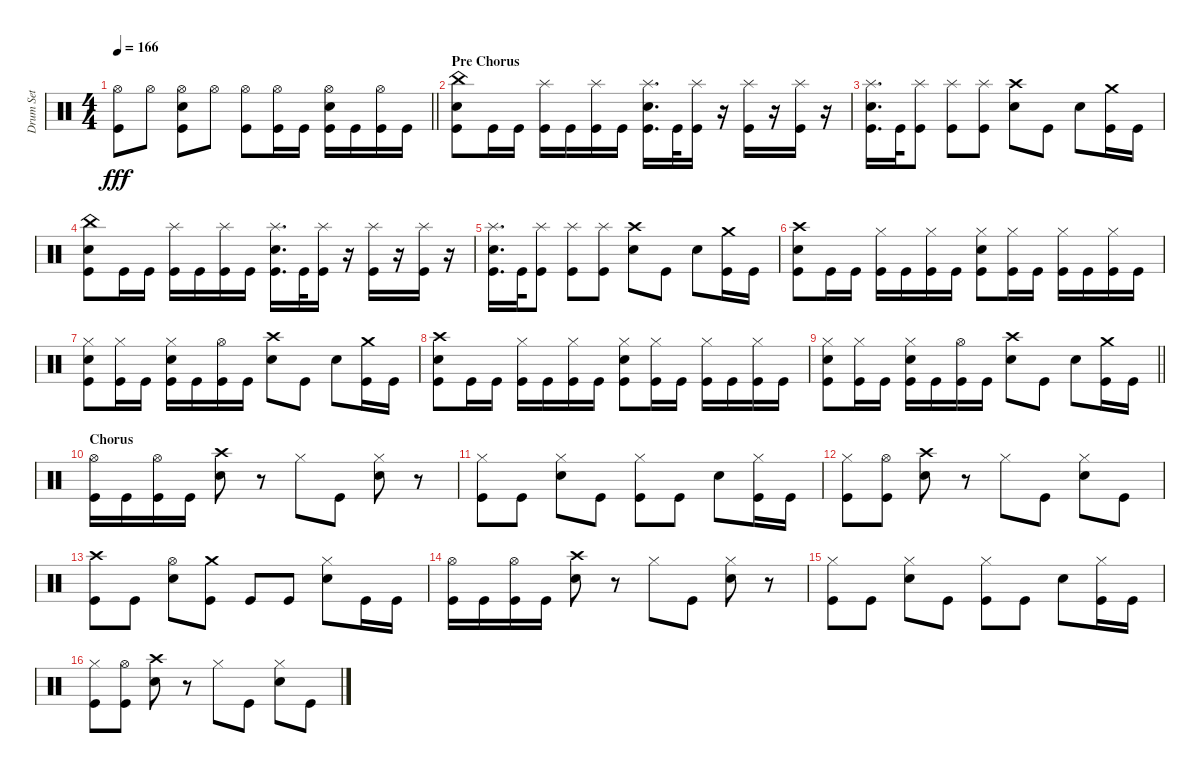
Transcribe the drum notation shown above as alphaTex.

\track ("Drum Set" "Drum Set") {instrument percussion}
\staff {score}
\articulation defaults
\ts (4 4)
\tempo 166
\clef neutral
\barLineRight lightlight
\ks c
("Kick (hit)" "Hi-Hat (open)").8{dy fff} "Hi-Hat (open)".8 ("Electric Snare (hit)" "Kick (hit)" "Hi-Hat (open)").8 "Hi-Hat (open)".8 ("Kick (hit)" "Hi-Hat (open)").8 ("Kick (hit)" "Hi-Hat (open)").16 "Kick (hit)".16 ("Electric Snare (hit)" "Kick (hit)" "Hi-Hat (open)").16 "Kick (hit)".16 ("Kick (hit)" "Hi-Hat (open)").16 "Kick (hit)".16 |
\section ("" "Pre Chorus")
("Electric Snare (hit)" "Kick (hit)" "China (hit)").8 "Kick (hit)".16 "Kick (hit)".16 ("Kick (hit)" "Splash (hit)").16 "Kick (hit)".16 ("Kick (hit)" "Splash (hit)").16 "Kick (hit)".16 ("Electric Snare (hit)" "Kick (hit)" "Splash (hit)").16{d} "Kick (hit)".32 ("Kick (hit)" "Splash (hit)").16 r.16 ("Kick (hit)" "Splash (hit)").16 r.16 ("Kick (hit)" "Splash (hit)").16 r.16 |
("Electric Snare (hit)" "Kick (hit)" "Splash (hit)").16{d} "Kick (hit)".32 ("Kick (hit)" "Splash (hit)").8 ("Kick (hit)" "Splash (hit)").8 ("Kick (hit)" "Splash (hit)").8 ("Electric Snare (hit)" "Crash high (hit)").8 "Kick (hit)".8 "Electric Snare (hit)".8 ("Kick (hit)" "Crash medium (hit)").16 "Kick (hit)".16 |
("Electric Snare (hit)" "Kick (hit)" "China (hit)").8 "Kick (hit)".16 "Kick (hit)".16 ("Kick (hit)" "Splash (hit)").16 "Kick (hit)".16 ("Kick (hit)" "Splash (hit)").16 "Kick (hit)".16 ("Electric Snare (hit)" "Kick (hit)" "Splash (hit)").16{d} "Kick (hit)".32 ("Kick (hit)" "Splash (hit)").16 r.16 ("Kick (hit)" "Splash (hit)").16 r.16 ("Kick (hit)" "Splash (hit)").16 r.16 |
("Electric Snare (hit)" "Kick (hit)" "Splash (hit)").16{d} "Kick (hit)".32 ("Kick (hit)" "Splash (hit)").8 ("Kick (hit)" "Splash (hit)").8 ("Kick (hit)" "Splash (hit)").8 ("Electric Snare (hit)" "Crash high (hit)").8 "Kick (hit)".8 "Electric Snare (hit)".8 ("Kick (hit)" "Crash medium (hit)").16 "Kick (hit)".16 |
("Electric Snare (hit)" "Kick (hit)" "Crash high (hit)").8 "Kick (hit)".16 "Kick (hit)".16 ("Kick (hit)" "Hi-Hat (closed)").16 "Kick (hit)".16 ("Kick (hit)" "Hi-Hat (closed)").16 "Kick (hit)".16 ("Electric Snare (hit)" "Kick (hit)" "Hi-Hat (closed)").8 ("Kick (hit)" "Hi-Hat (closed)").16 "Kick (hit)".16 ("Kick (hit)" "Hi-Hat (closed)").16 "Kick (hit)".16 ("Kick (hit)" "Hi-Hat (closed)").16 "Kick (hit)".16 |
("Electric Snare (hit)" "Kick (hit)" "Hi-Hat (closed)").8 ("Kick (hit)" "Hi-Hat (closed)").16 "Kick (hit)".16 ("Electric Snare (hit)" "Kick (hit)" "Hi-Hat (closed)").16 "Kick (hit)".16 ("Kick (hit)" "Hi-Hat (open)").16 "Kick (hit)".16 ("Electric Snare (hit)" "Crash high (hit)").8 "Kick (hit)".8 "Electric Snare (hit)".8 ("Kick (hit)" "Crash medium (hit)").16 "Kick (hit)".16 |
("Electric Snare (hit)" "Kick (hit)" "Crash high (hit)").8 "Kick (hit)".16 "Kick (hit)".16 ("Kick (hit)" "Hi-Hat (closed)").16 "Kick (hit)".16 ("Kick (hit)" "Hi-Hat (closed)").16 "Kick (hit)".16 ("Electric Snare (hit)" "Kick (hit)" "Hi-Hat (closed)").8 ("Kick (hit)" "Hi-Hat (closed)").16 "Kick (hit)".16 ("Kick (hit)" "Hi-Hat (closed)").16 "Kick (hit)".16 ("Kick (hit)" "Hi-Hat (closed)").16 "Kick (hit)".16 |
\barLineRight lightlight
("Electric Snare (hit)" "Kick (hit)" "Hi-Hat (closed)").8 ("Kick (hit)" "Hi-Hat (closed)").16 "Kick (hit)".16 ("Electric Snare (hit)" "Kick (hit)" "Hi-Hat (closed)").16 "Kick (hit)".16 ("Kick (hit)" "Hi-Hat (open)").16 "Kick (hit)".16 ("Electric Snare (hit)" "Crash high (hit)").8 "Kick (hit)".8 "Electric Snare (hit)".8 ("Kick (hit)" "Crash medium (hit)").16 "Kick (hit)".16 |
\section ("" "Chorus")
("Kick (hit)" "Hi-Hat (open)").16 "Kick (hit)".16 ("Kick (hit)" "Hi-Hat (open)").16 "Kick (hit)".16 ("Electric Snare (hit)" "Crash high (hit)").8 r.8 "Hi-Hat (closed)".8 "Kick (hit)".8 ("Electric Snare (hit)" "Hi-Hat (closed)").8 r.8 |
("Kick (hit)" "Hi-Hat (closed)").8 "Kick (hit)".8 ("Electric Snare (hit)" "Hi-Hat (closed)").8 "Kick (hit)".8 ("Kick (hit)" "Hi-Hat (closed)").8 "Kick (hit)".8 "Electric Snare (hit)".8 ("Kick (hit)" "Hi-Hat (closed)").16 "Kick (hit)".16 |
("Kick (hit)" "Hi-Hat (closed)").8 ("Kick (hit)" "Hi-Hat (open)").8 ("Electric Snare (hit)" "Crash high (hit)").8 r.8 "Hi-Hat (closed)".8 "Kick (hit)".8 ("Electric Snare (hit)" "Hi-Hat (closed)").8 "Kick (hit)".8 |
("Kick (hit)" "Crash high (hit)").8 "Kick (hit)".8 ("Electric Snare (hit)" "Hi-Hat (open)").8 ("Kick (hit)" "Crash medium (hit)").8 "Kick (hit)".8 "Kick (hit)".8 ("Electric Snare (hit)" "Hi-Hat (closed)").8 "Kick (hit)".16 "Kick (hit)".16 |
("Kick (hit)" "Hi-Hat (open)").16 "Kick (hit)".16 ("Kick (hit)" "Hi-Hat (open)").16 "Kick (hit)".16 ("Electric Snare (hit)" "Crash high (hit)").8 r.8 "Hi-Hat (closed)".8 "Kick (hit)".8 ("Electric Snare (hit)" "Hi-Hat (closed)").8 r.8 |
("Kick (hit)" "Hi-Hat (closed)").8 "Kick (hit)".8 ("Electric Snare (hit)" "Hi-Hat (closed)").8 "Kick (hit)".8 ("Kick (hit)" "Hi-Hat (closed)").8 "Kick (hit)".8 "Electric Snare (hit)".8 ("Kick (hit)" "Hi-Hat (closed)").16 "Kick (hit)".16 |
("Kick (hit)" "Hi-Hat (closed)").8 ("Kick (hit)" "Hi-Hat (open)").8 ("Electric Snare (hit)" "Crash high (hit)").8 r.8 "Hi-Hat (closed)".8 "Kick (hit)".8 ("Electric Snare (hit)" "Hi-Hat (closed)").8 "Kick (hit)".8
